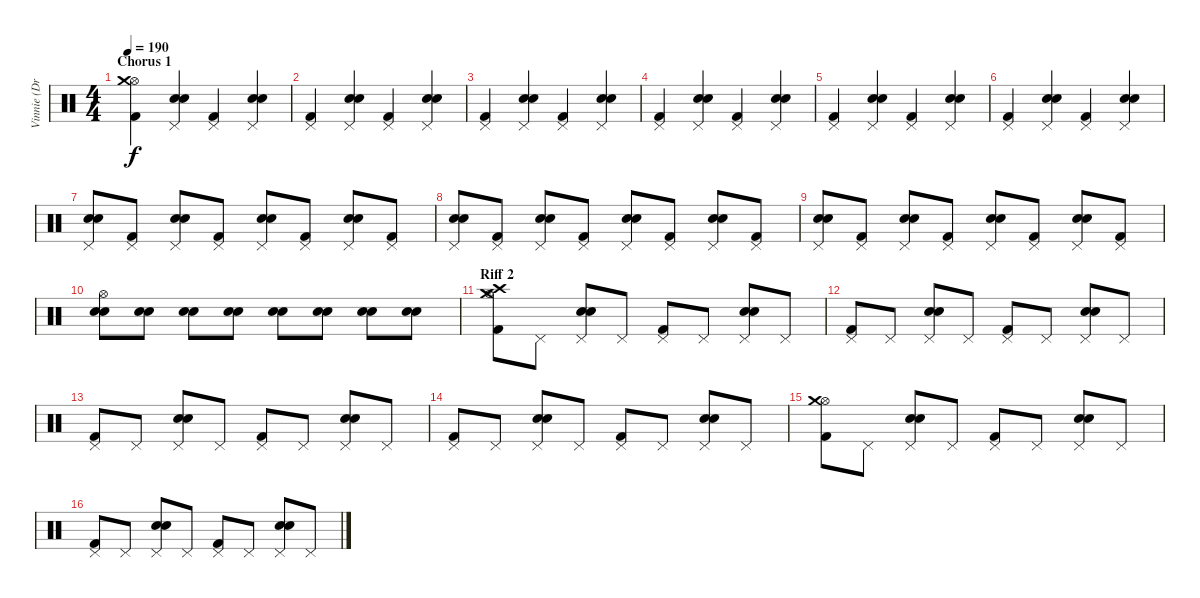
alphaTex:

\track ("Vinnie (Drums)" "Vinnie (Dr") {instrument percussion}
\staff {score}
\articulation defaults
\ts (4 4)
\section ("" "Chorus 1")
\tempo 190
\clef neutral
\ks c
("Kick (hit) 2" "Hi-Hat (open)" "Crash medium (hit)").4{dy f} ("Snare (hit) 2" "Electric Snare (hit)" "Pedal Hi-Hat (hit)").4 ("Kick (hit) 2" "Pedal Hi-Hat (hit)").4 ("Snare (hit) 2" "Electric Snare (hit)" "Pedal Hi-Hat (hit)").4 |
("Kick (hit) 2" "Pedal Hi-Hat (hit)").4 ("Snare (hit) 2" "Electric Snare (hit)" "Pedal Hi-Hat (hit)").4 ("Kick (hit) 2" "Pedal Hi-Hat (hit)").4 ("Snare (hit) 2" "Electric Snare (hit)" "Pedal Hi-Hat (hit)").4 |
("Kick (hit) 2" "Pedal Hi-Hat (hit)").4 ("Snare (hit) 2" "Electric Snare (hit)" "Pedal Hi-Hat (hit)").4 ("Kick (hit) 2" "Pedal Hi-Hat (hit)").4 ("Snare (hit) 2" "Electric Snare (hit)" "Pedal Hi-Hat (hit)").4 |
("Kick (hit) 2" "Pedal Hi-Hat (hit)").4 ("Snare (hit) 2" "Electric Snare (hit)" "Pedal Hi-Hat (hit)").4 ("Kick (hit) 2" "Pedal Hi-Hat (hit)").4 ("Snare (hit) 2" "Electric Snare (hit)" "Pedal Hi-Hat (hit)").4 |
("Kick (hit) 2" "Pedal Hi-Hat (hit)").4 ("Snare (hit) 2" "Electric Snare (hit)" "Pedal Hi-Hat (hit)").4 ("Kick (hit) 2" "Pedal Hi-Hat (hit)").4 ("Snare (hit) 2" "Electric Snare (hit)" "Pedal Hi-Hat (hit)").4 |
("Kick (hit) 2" "Pedal Hi-Hat (hit)").4 ("Snare (hit) 2" "Electric Snare (hit)" "Pedal Hi-Hat (hit)").4 ("Kick (hit) 2" "Pedal Hi-Hat (hit)").4 ("Snare (hit) 2" "Electric Snare (hit)" "Pedal Hi-Hat (hit)").4 |
("Snare (hit) 2" "Electric Snare (hit)" "Pedal Hi-Hat (hit)").8 ("Kick (hit) 2" "Pedal Hi-Hat (hit)").8 ("Snare (hit) 2" "Electric Snare (hit)" "Pedal Hi-Hat (hit)").8 ("Kick (hit) 2" "Pedal Hi-Hat (hit)").8 ("Snare (hit) 2" "Electric Snare (hit)" "Pedal Hi-Hat (hit)").8 ("Kick (hit) 2" "Pedal Hi-Hat (hit)").8 ("Snare (hit) 2" "Electric Snare (hit)" "Pedal Hi-Hat (hit)").8 ("Kick (hit) 2" "Pedal Hi-Hat (hit)").8 |
("Snare (hit) 2" "Electric Snare (hit)" "Pedal Hi-Hat (hit)").8 ("Kick (hit) 2" "Pedal Hi-Hat (hit)").8 ("Snare (hit) 2" "Electric Snare (hit)" "Pedal Hi-Hat (hit)").8 ("Kick (hit) 2" "Pedal Hi-Hat (hit)").8 ("Snare (hit) 2" "Electric Snare (hit)" "Pedal Hi-Hat (hit)").8 ("Kick (hit) 2" "Pedal Hi-Hat (hit)").8 ("Snare (hit) 2" "Electric Snare (hit)" "Pedal Hi-Hat (hit)").8 ("Kick (hit) 2" "Pedal Hi-Hat (hit)").8 |
("Snare (hit) 2" "Electric Snare (hit)" "Pedal Hi-Hat (hit)").8 ("Kick (hit) 2" "Pedal Hi-Hat (hit)").8 ("Snare (hit) 2" "Electric Snare (hit)" "Pedal Hi-Hat (hit)").8 ("Kick (hit) 2" "Pedal Hi-Hat (hit)").8 ("Snare (hit) 2" "Electric Snare (hit)" "Pedal Hi-Hat (hit)").8 ("Kick (hit) 2" "Pedal Hi-Hat (hit)").8 ("Snare (hit) 2" "Electric Snare (hit)" "Pedal Hi-Hat (hit)").8 ("Kick (hit) 2" "Pedal Hi-Hat (hit)").8 |
("Snare (hit) 2" "Electric Snare (hit)" "Hi-Hat (open)").8 ("Snare (hit) 2" "Electric Snare (hit)").8 ("Snare (hit) 2" "Electric Snare (hit)").8 ("Snare (hit) 2" "Electric Snare (hit)").8 ("Snare (hit) 2" "Electric Snare (hit)").8 ("Snare (hit) 2" "Electric Snare (hit)").8 ("Snare (hit) 2" "Electric Snare (hit)").8 ("Snare (hit) 2" "Electric Snare (hit)").8 |
\section ("" "Riff 2")
("Kick (hit) 2" "Hi-Hat (open)" "Crash medium (hit)" "Crash high (hit)").8 "Pedal Hi-Hat (hit)".8 ("Snare (hit) 2" "Electric Snare (hit)" "Pedal Hi-Hat (hit)").8 "Pedal Hi-Hat (hit)".8 ("Kick (hit) 2" "Pedal Hi-Hat (hit)").8 "Pedal Hi-Hat (hit)".8 ("Snare (hit) 2" "Electric Snare (hit)" "Pedal Hi-Hat (hit)").8 "Pedal Hi-Hat (hit)".8 |
("Kick (hit) 2" "Pedal Hi-Hat (hit)").8 "Pedal Hi-Hat (hit)".8 ("Snare (hit) 2" "Electric Snare (hit)" "Pedal Hi-Hat (hit)").8 "Pedal Hi-Hat (hit)".8 ("Kick (hit) 2" "Pedal Hi-Hat (hit)").8 "Pedal Hi-Hat (hit)".8 ("Snare (hit) 2" "Electric Snare (hit)" "Pedal Hi-Hat (hit)").8 "Pedal Hi-Hat (hit)".8 |
("Kick (hit) 2" "Pedal Hi-Hat (hit)").8 "Pedal Hi-Hat (hit)".8 ("Snare (hit) 2" "Electric Snare (hit)" "Pedal Hi-Hat (hit)").8 "Pedal Hi-Hat (hit)".8 ("Kick (hit) 2" "Pedal Hi-Hat (hit)").8 "Pedal Hi-Hat (hit)".8 ("Snare (hit) 2" "Electric Snare (hit)" "Pedal Hi-Hat (hit)").8 "Pedal Hi-Hat (hit)".8 |
("Kick (hit) 2" "Pedal Hi-Hat (hit)").8 "Pedal Hi-Hat (hit)".8 ("Snare (hit) 2" "Electric Snare (hit)" "Pedal Hi-Hat (hit)").8 "Pedal Hi-Hat (hit)".8 ("Kick (hit) 2" "Pedal Hi-Hat (hit)").8 "Pedal Hi-Hat (hit)".8 ("Snare (hit) 2" "Electric Snare (hit)" "Pedal Hi-Hat (hit)").8 "Pedal Hi-Hat (hit)".8 |
("Kick (hit) 2" "Hi-Hat (open)" "Crash medium (hit)").8 "Pedal Hi-Hat (hit)".8 ("Snare (hit) 2" "Electric Snare (hit)" "Pedal Hi-Hat (hit)").8 "Pedal Hi-Hat (hit)".8 ("Kick (hit) 2" "Pedal Hi-Hat (hit)").8 "Pedal Hi-Hat (hit)".8 ("Snare (hit) 2" "Electric Snare (hit)" "Pedal Hi-Hat (hit)").8 "Pedal Hi-Hat (hit)".8 |
("Kick (hit) 2" "Pedal Hi-Hat (hit)").8 "Pedal Hi-Hat (hit)".8 ("Snare (hit) 2" "Electric Snare (hit)" "Pedal Hi-Hat (hit)").8 "Pedal Hi-Hat (hit)".8 ("Kick (hit) 2" "Pedal Hi-Hat (hit)").8 "Pedal Hi-Hat (hit)".8 ("Snare (hit) 2" "Electric Snare (hit)" "Pedal Hi-Hat (hit)").8 "Pedal Hi-Hat (hit)".8
